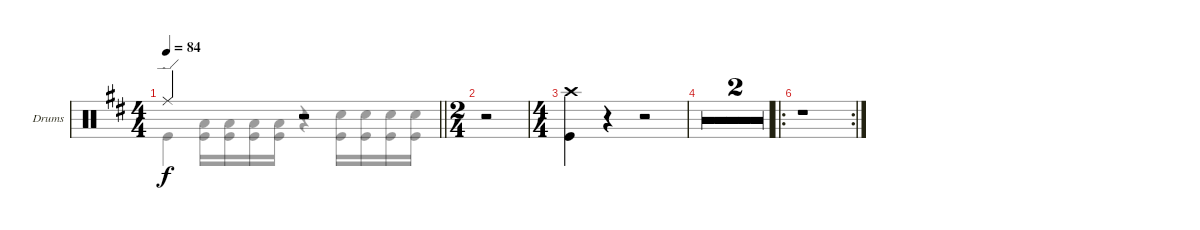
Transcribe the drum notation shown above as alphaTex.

\defaultSystemsLayout 4
\bracketExtendMode groupsimilarinstruments
\firstSystemTrackNameOrientation horizontal
\otherSystemsTrackNameOrientation horizontal
\track ("Drumkit" "Drums") {multiBarRest instrument percussion}
\staff {score}
\articulation defaults
\voice
\ts (4 4)
\tempo 84
\clef neutral
\barLineRight lightlight
\ks bminor "Ride (edge)"{t}.2{dy f}
r.2 |
\ts (2 4)
r.2 |
\ts (4 4)
("Kick (hit)" "Crash high (hit)").4 r.4 r.2 |
r.1 |
r.1 |
\ro
\rc 2
r.1
\voice
\clef neutral
\ottava regular
\simile none
\barLineRight lightlight
\ks bminor "Kick (hit)".4{dy f}
("Kick (hit)" "Low Tom (hit)").16 ("Kick (hit)" "Low Tom (hit)").16 ("Kick (hit)" "Low Tom (hit)").16 ("Kick (hit)" "Low Tom (hit)").16 r.4 ("Kick (hit)" "Snare (hit) 2").16 ("Kick (hit)" "Snare (hit) 2").16 ("Kick (hit)" "Snare (hit) 2").16 ("Kick (hit)" "Snare (hit) 2").16 |
|
|
|
|
